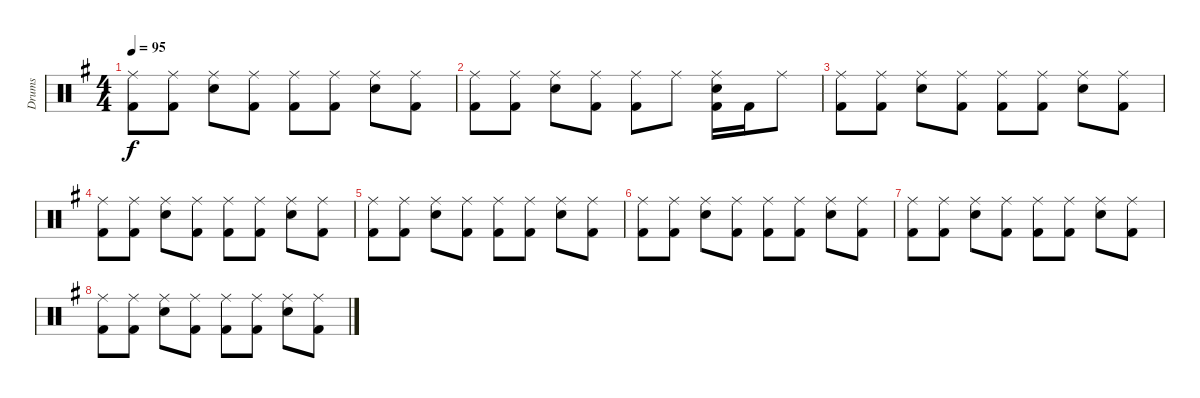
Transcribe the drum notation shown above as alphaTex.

\track ("Drums" "Drums") {instrument percussion}
\staff {score}
\articulation defaults
\ts (4 4)
\tempo 95
\clef neutral
\ks g
("Ride (middle)" "Kick (hit) 2").8{dy f} ("Ride (middle)" "Kick (hit) 2").8 ("Ride (middle)" "Snare (hit) 2").8 ("Ride (middle)" "Kick (hit) 2").8 ("Ride (middle)" "Kick (hit) 2").8 ("Ride (middle)" "Kick (hit) 2").8 ("Ride (middle)" "Snare (hit) 2").8 ("Ride (middle)" "Kick (hit) 2").8 |
("Ride (middle)" "Kick (hit) 2").8 ("Ride (middle)" "Kick (hit) 2").8 ("Ride (middle)" "Snare (hit) 2").8 ("Ride (middle)" "Kick (hit) 2").8 ("Ride (middle)" "Kick (hit) 2").8 "Ride (middle)".8 ("Ride (middle)" "Snare (hit) 2" "Kick (hit) 2").16 "Kick (hit) 2".16 "Ride (middle)".8 |
("Ride (middle)" "Kick (hit) 2").8 ("Ride (middle)" "Kick (hit) 2").8 ("Ride (middle)" "Snare (hit) 2").8 ("Ride (middle)" "Kick (hit) 2").8 ("Ride (middle)" "Kick (hit) 2").8 ("Ride (middle)" "Kick (hit) 2").8 ("Ride (middle)" "Snare (hit) 2").8 ("Ride (middle)" "Kick (hit) 2").8 |
("Ride (middle)" "Kick (hit) 2").8 ("Ride (middle)" "Kick (hit) 2").8 ("Ride (middle)" "Snare (hit) 2").8 ("Ride (middle)" "Kick (hit) 2").8 ("Ride (middle)" "Kick (hit) 2").8 ("Ride (middle)" "Kick (hit) 2").8 ("Ride (middle)" "Snare (hit) 2").8 ("Ride (middle)" "Kick (hit) 2").8 |
("Ride (middle)" "Kick (hit) 2").8 ("Ride (middle)" "Kick (hit) 2").8 ("Ride (middle)" "Snare (hit) 2").8 ("Ride (middle)" "Kick (hit) 2").8 ("Ride (middle)" "Kick (hit) 2").8 ("Ride (middle)" "Kick (hit) 2").8 ("Ride (middle)" "Snare (hit) 2").8 ("Ride (middle)" "Kick (hit) 2").8 |
("Ride (middle)" "Kick (hit) 2").8 ("Ride (middle)" "Kick (hit) 2").8 ("Ride (middle)" "Snare (hit) 2").8 ("Ride (middle)" "Kick (hit) 2").8 ("Ride (middle)" "Kick (hit) 2").8 ("Ride (middle)" "Kick (hit) 2").8 ("Ride (middle)" "Snare (hit) 2").8 ("Ride (middle)" "Kick (hit) 2").8 |
("Ride (middle)" "Kick (hit) 2").8 ("Ride (middle)" "Kick (hit) 2").8 ("Ride (middle)" "Snare (hit) 2").8 ("Ride (middle)" "Kick (hit) 2").8 ("Ride (middle)" "Kick (hit) 2").8 ("Ride (middle)" "Kick (hit) 2").8 ("Ride (middle)" "Snare (hit) 2").8 ("Ride (middle)" "Kick (hit) 2").8 |
("Ride (middle)" "Kick (hit) 2").8 ("Ride (middle)" "Kick (hit) 2").8 ("Ride (middle)" "Snare (hit) 2").8 ("Ride (middle)" "Kick (hit) 2").8 ("Ride (middle)" "Kick (hit) 2").8 ("Ride (middle)" "Kick (hit) 2").8 ("Ride (middle)" "Snare (hit) 2").8 ("Ride (middle)" "Kick (hit) 2").8
